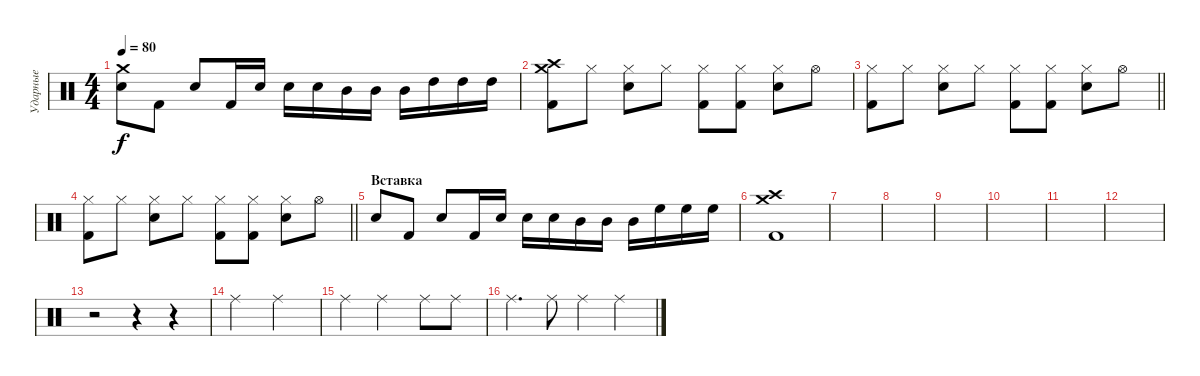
\track ("Ударные" "Ударные") {instrument percussion}
\staff {score}
\articulation defaults
\ts (4 4)
\tempo 80
\clef neutral
\ks c
("Crash medium (hit)" "Snare (hit) 2").8{dy f} "Kick (hit) 2".8 "Snare (hit) 2".8 "Kick (hit) 2".16 "Snare (hit) 2".16 "Snare (hit) 2".16 "Snare (hit) 2".16 "Mid Tom (hit)".16 "Mid Tom (hit)".16 "Mid Tom (hit)".16 "High Tom (hit)".16 "High Tom (hit)".16 "High Tom (hit)".16 |
("Crash high (hit)" "Crash medium (hit)" "Kick (hit) 2").8 "Hi-Hat (closed)".8 ("Hi-Hat (closed)" "Snare (hit) 2").8 "Hi-Hat (closed)".8 ("Hi-Hat (closed)" "Kick (hit) 2").8 ("Hi-Hat (closed)" "Kick (hit) 2").8 ("Hi-Hat (closed)" "Snare (hit) 2").8 "Hi-Hat (open)".8 |
\barLineRight lightlight
("Hi-Hat (closed)" "Kick (hit) 2").8 "Hi-Hat (closed)".8 ("Hi-Hat (closed)" "Snare (hit) 2").8 "Hi-Hat (closed)".8 ("Hi-Hat (closed)" "Kick (hit) 2").8 ("Hi-Hat (closed)" "Kick (hit) 2").8 ("Hi-Hat (closed)" "Snare (hit) 2").8 "Hi-Hat (open)".8 |
\barLineRight lightlight
("Hi-Hat (closed)" "Kick (hit) 2").8 "Hi-Hat (closed)".8 ("Hi-Hat (closed)" "Snare (hit) 2").8 "Hi-Hat (closed)".8 ("Hi-Hat (closed)" "Kick (hit) 2").8 ("Hi-Hat (closed)" "Kick (hit) 2").8 ("Hi-Hat (closed)" "Snare (hit) 2").8 "Hi-Hat (open)".8 |
\section ("" "Вставка")
"Snare (hit) 2".8 "Kick (hit) 2".8 "Snare (hit) 2".8 "Kick (hit) 2".16 "Snare (hit) 2".16 "Snare (hit) 2".16 "Snare (hit) 2".16 "Mid Tom (hit)".16 "Mid Tom (hit)".16 "Mid Tom (hit)".16 "High Floor Tom (hit)".16 "High Floor Tom (hit)".16 "High Floor Tom (hit)".16 |
("Crash high (hit)" "Crash medium (hit)" "Kick (hit) 2").1 |
|
|
|
|
|
|
r.2 r.4 r.4 |
"Ride (middle)".2{volume 10} "Ride (middle)".2 |
"Ride (middle)".4 "Ride (middle)".2 "Ride (middle)".8 "Ride (middle)".8 |
"Ride (middle)".4{d} "Ride (middle)".8 "Ride (middle)".4 "Ride (middle)".4
